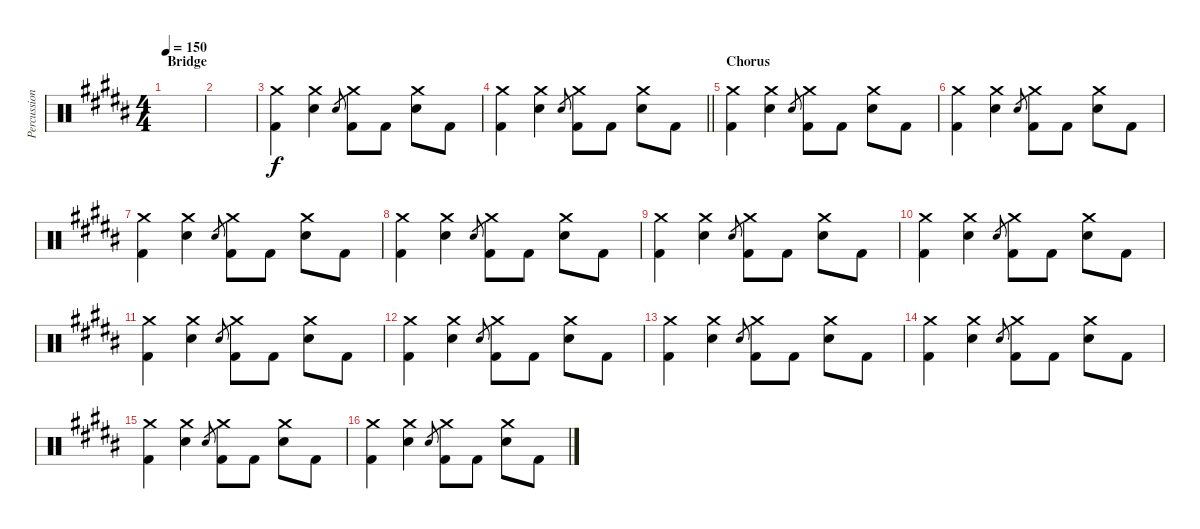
\track ("Percussion" "Percussion") {instrument percussion}
\staff {score}
\articulation defaults
\ts (4 4)
\section ("" "Bridge")
\tempo 150
\clef neutral
\ks b
|
|
("Crash medium (hit)" "Kick (hit) 2").4{dy f} ("Crash medium (hit)" "Electric Snare (hit)").4 "Electric Snare (hit)".8{gr} ("Crash medium (hit)" "Kick (hit) 2").8 "Kick (hit) 2".8 ("Crash medium (hit)" "Electric Snare (hit)").8 "Kick (hit) 2".8 |
\barLineRight lightlight
("Crash medium (hit)" "Kick (hit) 2").4 ("Crash medium (hit)" "Electric Snare (hit)").4 "Electric Snare (hit)".8{gr} ("Crash medium (hit)" "Kick (hit) 2").8 "Kick (hit) 2".8 ("Crash medium (hit)" "Electric Snare (hit)").8 "Kick (hit) 2".8 |
\section ("" "Chorus")
("Crash medium (hit)" "Kick (hit) 2").4 ("Crash medium (hit)" "Electric Snare (hit)").4 "Electric Snare (hit)".8{gr} ("Crash medium (hit)" "Kick (hit) 2").8 "Kick (hit) 2".8 ("Crash medium (hit)" "Electric Snare (hit)").8 "Kick (hit) 2".8 |
("Crash medium (hit)" "Kick (hit) 2").4 ("Crash medium (hit)" "Electric Snare (hit)").4 "Electric Snare (hit)".8{gr} ("Crash medium (hit)" "Kick (hit) 2").8 "Kick (hit) 2".8 ("Crash medium (hit)" "Electric Snare (hit)").8 "Kick (hit) 2".8 |
("Crash medium (hit)" "Kick (hit) 2").4 ("Crash medium (hit)" "Electric Snare (hit)").4 "Electric Snare (hit)".8{gr} ("Crash medium (hit)" "Kick (hit) 2").8 "Kick (hit) 2".8 ("Crash medium (hit)" "Electric Snare (hit)").8 "Kick (hit) 2".8 |
("Crash medium (hit)" "Kick (hit) 2").4 ("Crash medium (hit)" "Electric Snare (hit)").4 "Electric Snare (hit)".8{gr} ("Crash medium (hit)" "Kick (hit) 2").8 "Kick (hit) 2".8 ("Crash medium (hit)" "Electric Snare (hit)").8 "Kick (hit) 2".8 |
("Crash medium (hit)" "Kick (hit) 2").4 ("Crash medium (hit)" "Electric Snare (hit)").4 "Electric Snare (hit)".8{gr} ("Crash medium (hit)" "Kick (hit) 2").8 "Kick (hit) 2".8 ("Crash medium (hit)" "Electric Snare (hit)").8 "Kick (hit) 2".8 |
("Crash medium (hit)" "Kick (hit) 2").4 ("Crash medium (hit)" "Electric Snare (hit)").4 "Electric Snare (hit)".8{gr} ("Crash medium (hit)" "Kick (hit) 2").8 "Kick (hit) 2".8 ("Crash medium (hit)" "Electric Snare (hit)").8 "Kick (hit) 2".8 |
("Crash medium (hit)" "Kick (hit) 2").4 ("Crash medium (hit)" "Electric Snare (hit)").4 "Electric Snare (hit)".8{gr} ("Crash medium (hit)" "Kick (hit) 2").8 "Kick (hit) 2".8 ("Crash medium (hit)" "Electric Snare (hit)").8 "Kick (hit) 2".8 |
("Crash medium (hit)" "Kick (hit) 2").4 ("Crash medium (hit)" "Electric Snare (hit)").4 "Electric Snare (hit)".8{gr} ("Crash medium (hit)" "Kick (hit) 2").8 "Kick (hit) 2".8 ("Crash medium (hit)" "Electric Snare (hit)").8 "Kick (hit) 2".8 |
("Crash medium (hit)" "Kick (hit) 2").4 ("Crash medium (hit)" "Electric Snare (hit)").4 "Electric Snare (hit)".8{gr} ("Crash medium (hit)" "Kick (hit) 2").8 "Kick (hit) 2".8 ("Crash medium (hit)" "Electric Snare (hit)").8 "Kick (hit) 2".8 |
("Crash medium (hit)" "Kick (hit) 2").4 ("Crash medium (hit)" "Electric Snare (hit)").4 "Electric Snare (hit)".8{gr} ("Crash medium (hit)" "Kick (hit) 2").8 "Kick (hit) 2".8 ("Crash medium (hit)" "Electric Snare (hit)").8 "Kick (hit) 2".8 |
("Crash medium (hit)" "Kick (hit) 2").4 ("Crash medium (hit)" "Electric Snare (hit)").4 "Electric Snare (hit)".8{gr} ("Crash medium (hit)" "Kick (hit) 2").8 "Kick (hit) 2".8 ("Crash medium (hit)" "Electric Snare (hit)").8 "Kick (hit) 2".8 |
("Crash medium (hit)" "Kick (hit) 2").4 ("Crash medium (hit)" "Electric Snare (hit)").4 "Electric Snare (hit)".8{gr} ("Crash medium (hit)" "Kick (hit) 2").8 "Kick (hit) 2".8 ("Crash medium (hit)" "Electric Snare (hit)").8 "Kick (hit) 2".8
